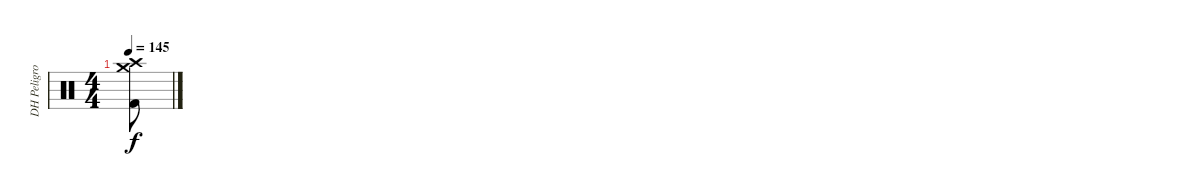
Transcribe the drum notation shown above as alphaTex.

\track ("DH Peligro" "DH Peligro") {instrument percussion}
\staff {score}
\articulation defaults
\ts (4 4)
\tempo 145
\clef neutral
\ks c
("Crash high (hit)" "Crash medium (hit)" "Kick (hit) 2").8{dy f}
